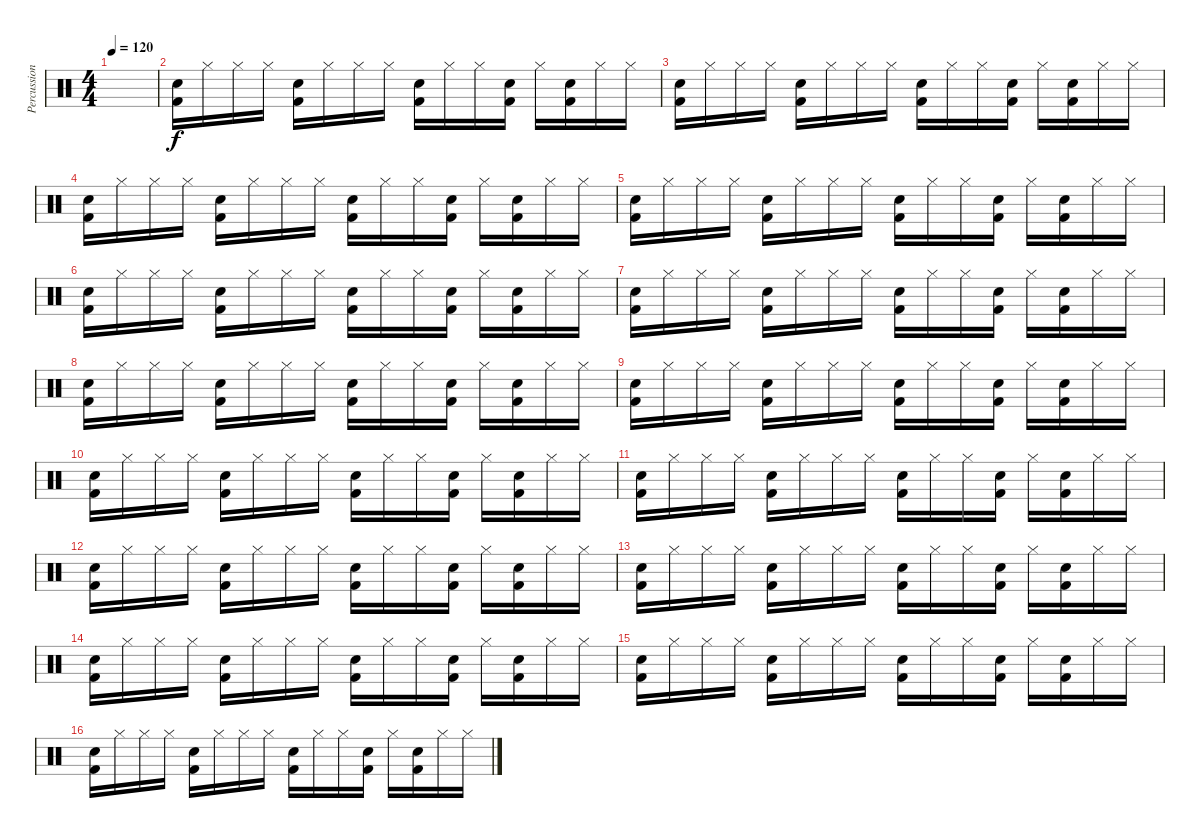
\track ("Percussion" "Percussion") {instrument percussion}
\staff {score}
\articulation defaults
\ts (4 4)
\tempo 120
\clef neutral
\ks c
|
("Electric Snare (hit)" "Kick (hit) 2").16 "Hi-Hat (closed)".16 "Hi-Hat (closed)".16 "Hi-Hat (closed)".16 ("Electric Snare (hit)" "Kick (hit) 2").16 "Hi-Hat (closed)".16 "Hi-Hat (closed)".16 "Hi-Hat (closed)".16 ("Electric Snare (hit)" "Kick (hit) 2").16 "Hi-Hat (closed)".16 "Hi-Hat (closed)".16 ("Electric Snare (hit)" "Kick (hit) 2").16 "Hi-Hat (closed)".16 ("Electric Snare (hit)" "Kick (hit) 2").16 "Hi-Hat (closed)".16 "Hi-Hat (closed)".16 |
("Electric Snare (hit)" "Kick (hit) 2").16 "Hi-Hat (closed)".16 "Hi-Hat (closed)".16 "Hi-Hat (closed)".16 ("Electric Snare (hit)" "Kick (hit) 2").16 "Hi-Hat (closed)".16 "Hi-Hat (closed)".16 "Hi-Hat (closed)".16 ("Electric Snare (hit)" "Kick (hit) 2").16 "Hi-Hat (closed)".16 "Hi-Hat (closed)".16 ("Electric Snare (hit)" "Kick (hit) 2").16 "Hi-Hat (closed)".16 ("Electric Snare (hit)" "Kick (hit) 2").16 "Hi-Hat (closed)".16 "Hi-Hat (closed)".16 |
("Electric Snare (hit)" "Kick (hit) 2").16 "Hi-Hat (closed)".16 "Hi-Hat (closed)".16 "Hi-Hat (closed)".16 ("Electric Snare (hit)" "Kick (hit) 2").16 "Hi-Hat (closed)".16 "Hi-Hat (closed)".16 "Hi-Hat (closed)".16 ("Electric Snare (hit)" "Kick (hit) 2").16 "Hi-Hat (closed)".16 "Hi-Hat (closed)".16 ("Electric Snare (hit)" "Kick (hit) 2").16 "Hi-Hat (closed)".16 ("Electric Snare (hit)" "Kick (hit) 2").16 "Hi-Hat (closed)".16 "Hi-Hat (closed)".16 |
("Electric Snare (hit)" "Kick (hit) 2").16 "Hi-Hat (closed)".16 "Hi-Hat (closed)".16 "Hi-Hat (closed)".16 ("Electric Snare (hit)" "Kick (hit) 2").16 "Hi-Hat (closed)".16 "Hi-Hat (closed)".16 "Hi-Hat (closed)".16 ("Electric Snare (hit)" "Kick (hit) 2").16 "Hi-Hat (closed)".16 "Hi-Hat (closed)".16 ("Electric Snare (hit)" "Kick (hit) 2").16 "Hi-Hat (closed)".16 ("Electric Snare (hit)" "Kick (hit) 2").16 "Hi-Hat (closed)".16 "Hi-Hat (closed)".16 |
("Electric Snare (hit)" "Kick (hit) 2").16 "Hi-Hat (closed)".16 "Hi-Hat (closed)".16 "Hi-Hat (closed)".16 ("Electric Snare (hit)" "Kick (hit) 2").16 "Hi-Hat (closed)".16 "Hi-Hat (closed)".16 "Hi-Hat (closed)".16 ("Electric Snare (hit)" "Kick (hit) 2").16 "Hi-Hat (closed)".16 "Hi-Hat (closed)".16 ("Electric Snare (hit)" "Kick (hit) 2").16 "Hi-Hat (closed)".16 ("Electric Snare (hit)" "Kick (hit) 2").16 "Hi-Hat (closed)".16 "Hi-Hat (closed)".16 |
("Electric Snare (hit)" "Kick (hit) 2").16 "Hi-Hat (closed)".16 "Hi-Hat (closed)".16 "Hi-Hat (closed)".16 ("Electric Snare (hit)" "Kick (hit) 2").16 "Hi-Hat (closed)".16 "Hi-Hat (closed)".16 "Hi-Hat (closed)".16 ("Electric Snare (hit)" "Kick (hit) 2").16 "Hi-Hat (closed)".16 "Hi-Hat (closed)".16 ("Electric Snare (hit)" "Kick (hit) 2").16 "Hi-Hat (closed)".16 ("Electric Snare (hit)" "Kick (hit) 2").16 "Hi-Hat (closed)".16 "Hi-Hat (closed)".16 |
("Electric Snare (hit)" "Kick (hit) 2").16 "Hi-Hat (closed)".16 "Hi-Hat (closed)".16 "Hi-Hat (closed)".16 ("Electric Snare (hit)" "Kick (hit) 2").16 "Hi-Hat (closed)".16 "Hi-Hat (closed)".16 "Hi-Hat (closed)".16 ("Electric Snare (hit)" "Kick (hit) 2").16 "Hi-Hat (closed)".16 "Hi-Hat (closed)".16 ("Electric Snare (hit)" "Kick (hit) 2").16 "Hi-Hat (closed)".16 ("Electric Snare (hit)" "Kick (hit) 2").16 "Hi-Hat (closed)".16 "Hi-Hat (closed)".16 |
("Electric Snare (hit)" "Kick (hit) 2").16 "Hi-Hat (closed)".16 "Hi-Hat (closed)".16 "Hi-Hat (closed)".16 ("Electric Snare (hit)" "Kick (hit) 2").16 "Hi-Hat (closed)".16 "Hi-Hat (closed)".16 "Hi-Hat (closed)".16 ("Electric Snare (hit)" "Kick (hit) 2").16 "Hi-Hat (closed)".16 "Hi-Hat (closed)".16 ("Electric Snare (hit)" "Kick (hit) 2").16 "Hi-Hat (closed)".16 ("Electric Snare (hit)" "Kick (hit) 2").16 "Hi-Hat (closed)".16 "Hi-Hat (closed)".16 |
("Electric Snare (hit)" "Kick (hit) 2").16 "Hi-Hat (closed)".16 "Hi-Hat (closed)".16 "Hi-Hat (closed)".16 ("Electric Snare (hit)" "Kick (hit) 2").16 "Hi-Hat (closed)".16 "Hi-Hat (closed)".16 "Hi-Hat (closed)".16 ("Electric Snare (hit)" "Kick (hit) 2").16 "Hi-Hat (closed)".16 "Hi-Hat (closed)".16 ("Electric Snare (hit)" "Kick (hit) 2").16 "Hi-Hat (closed)".16 ("Electric Snare (hit)" "Kick (hit) 2").16 "Hi-Hat (closed)".16 "Hi-Hat (closed)".16 |
("Electric Snare (hit)" "Kick (hit) 2").16 "Hi-Hat (closed)".16 "Hi-Hat (closed)".16 "Hi-Hat (closed)".16 ("Electric Snare (hit)" "Kick (hit) 2").16 "Hi-Hat (closed)".16 "Hi-Hat (closed)".16 "Hi-Hat (closed)".16 ("Electric Snare (hit)" "Kick (hit) 2").16 "Hi-Hat (closed)".16 "Hi-Hat (closed)".16 ("Electric Snare (hit)" "Kick (hit) 2").16 "Hi-Hat (closed)".16 ("Electric Snare (hit)" "Kick (hit) 2").16 "Hi-Hat (closed)".16 "Hi-Hat (closed)".16 |
("Electric Snare (hit)" "Kick (hit) 2").16 "Hi-Hat (closed)".16 "Hi-Hat (closed)".16 "Hi-Hat (closed)".16 ("Electric Snare (hit)" "Kick (hit) 2").16 "Hi-Hat (closed)".16 "Hi-Hat (closed)".16 "Hi-Hat (closed)".16 ("Electric Snare (hit)" "Kick (hit) 2").16 "Hi-Hat (closed)".16 "Hi-Hat (closed)".16 ("Electric Snare (hit)" "Kick (hit) 2").16 "Hi-Hat (closed)".16 ("Electric Snare (hit)" "Kick (hit) 2").16 "Hi-Hat (closed)".16 "Hi-Hat (closed)".16 |
("Electric Snare (hit)" "Kick (hit) 2").16 "Hi-Hat (closed)".16 "Hi-Hat (closed)".16 "Hi-Hat (closed)".16 ("Electric Snare (hit)" "Kick (hit) 2").16 "Hi-Hat (closed)".16 "Hi-Hat (closed)".16 "Hi-Hat (closed)".16 ("Electric Snare (hit)" "Kick (hit) 2").16 "Hi-Hat (closed)".16 "Hi-Hat (closed)".16 ("Electric Snare (hit)" "Kick (hit) 2").16 "Hi-Hat (closed)".16 ("Electric Snare (hit)" "Kick (hit) 2").16 "Hi-Hat (closed)".16 "Hi-Hat (closed)".16 |
("Electric Snare (hit)" "Kick (hit) 2").16 "Hi-Hat (closed)".16 "Hi-Hat (closed)".16 "Hi-Hat (closed)".16 ("Electric Snare (hit)" "Kick (hit) 2").16 "Hi-Hat (closed)".16 "Hi-Hat (closed)".16 "Hi-Hat (closed)".16 ("Electric Snare (hit)" "Kick (hit) 2").16 "Hi-Hat (closed)".16 "Hi-Hat (closed)".16 ("Electric Snare (hit)" "Kick (hit) 2").16 "Hi-Hat (closed)".16 ("Electric Snare (hit)" "Kick (hit) 2").16 "Hi-Hat (closed)".16 "Hi-Hat (closed)".16 |
("Electric Snare (hit)" "Kick (hit) 2").16 "Hi-Hat (closed)".16 "Hi-Hat (closed)".16 "Hi-Hat (closed)".16 ("Electric Snare (hit)" "Kick (hit) 2").16 "Hi-Hat (closed)".16 "Hi-Hat (closed)".16 "Hi-Hat (closed)".16 ("Electric Snare (hit)" "Kick (hit) 2").16 "Hi-Hat (closed)".16 "Hi-Hat (closed)".16 ("Electric Snare (hit)" "Kick (hit) 2").16 "Hi-Hat (closed)".16 ("Electric Snare (hit)" "Kick (hit) 2").16 "Hi-Hat (closed)".16 "Hi-Hat (closed)".16 |
("Electric Snare (hit)" "Kick (hit) 2").16 "Hi-Hat (closed)".16 "Hi-Hat (closed)".16 "Hi-Hat (closed)".16 ("Electric Snare (hit)" "Kick (hit) 2").16 "Hi-Hat (closed)".16 "Hi-Hat (closed)".16 "Hi-Hat (closed)".16 ("Electric Snare (hit)" "Kick (hit) 2").16 "Hi-Hat (closed)".16 "Hi-Hat (closed)".16 ("Electric Snare (hit)" "Kick (hit) 2").16 "Hi-Hat (closed)".16 ("Electric Snare (hit)" "Kick (hit) 2").16 "Hi-Hat (closed)".16 "Hi-Hat (closed)".16
